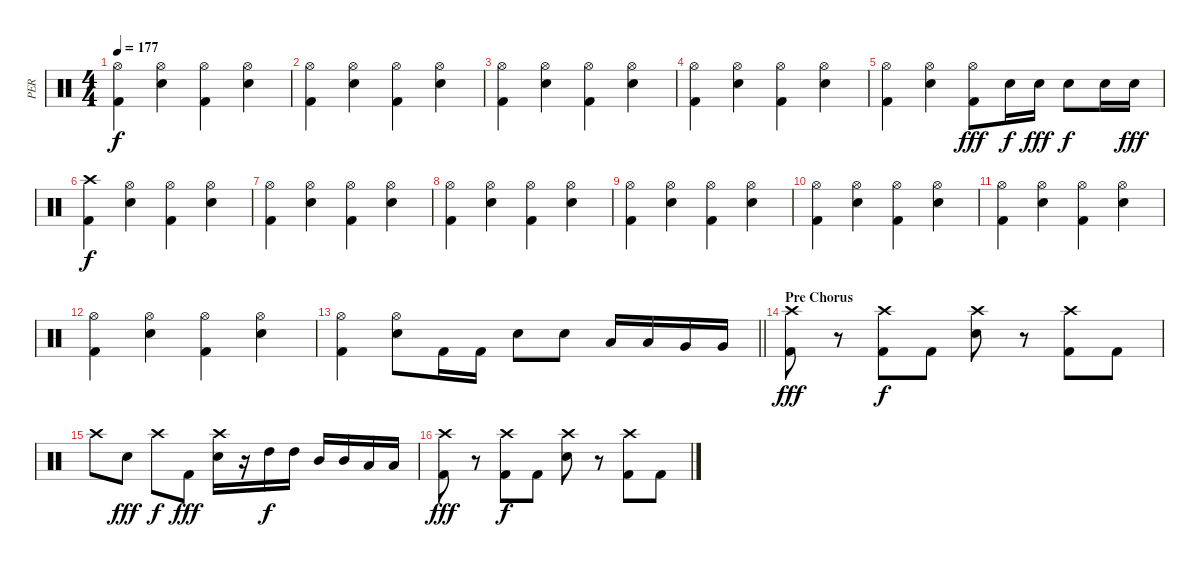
\track ("PER" "PER") {instrument percussion}
\staff {score}
\articulation defaults
\ts (4 4)
\tempo 177
\clef neutral
\ks c
("Hi-Hat (open)" "Kick (hit) 2").4{dy f} ("Hi-Hat (open)" "Electric Snare (hit)").4 ("Hi-Hat (open)" "Kick (hit) 2").4 ("Hi-Hat (open)" "Electric Snare (hit)").4 |
("Hi-Hat (open)" "Kick (hit) 2").4 ("Hi-Hat (open)" "Electric Snare (hit)").4 ("Hi-Hat (open)" "Kick (hit) 2").4 ("Hi-Hat (open)" "Electric Snare (hit)").4 |
("Hi-Hat (open)" "Kick (hit) 2").4 ("Hi-Hat (open)" "Electric Snare (hit)").4 ("Hi-Hat (open)" "Kick (hit) 2").4 ("Hi-Hat (open)" "Electric Snare (hit)").4 |
("Hi-Hat (open)" "Kick (hit) 2").4 ("Hi-Hat (open)" "Electric Snare (hit)").4 ("Hi-Hat (open)" "Kick (hit) 2").4 ("Hi-Hat (open)" "Electric Snare (hit)").4 |
("Hi-Hat (open)" "Kick (hit) 2").4 ("Hi-Hat (open)" "Electric Snare (hit)").4 ("Hi-Hat (open)" "Kick (hit) 2").8{dy fff} "Electric Snare (hit)".16{dy f} "Electric Snare (hit)".16{dy fff} "Electric Snare (hit)".8{dy f} "Electric Snare (hit)".16 "Electric Snare (hit)".16{dy fff} |
("Crash high (hit)" "Kick (hit) 2").4{dy f} ("Hi-Hat (open)" "Electric Snare (hit)").4 ("Hi-Hat (open)" "Kick (hit) 2").4 ("Hi-Hat (open)" "Electric Snare (hit)").4 |
("Hi-Hat (open)" "Kick (hit) 2").4 ("Hi-Hat (open)" "Electric Snare (hit)").4 ("Hi-Hat (open)" "Kick (hit) 2").4 ("Hi-Hat (open)" "Electric Snare (hit)").4 |
("Hi-Hat (open)" "Kick (hit) 2").4 ("Hi-Hat (open)" "Electric Snare (hit)").4 ("Hi-Hat (open)" "Kick (hit) 2").4 ("Hi-Hat (open)" "Electric Snare (hit)").4 |
("Hi-Hat (open)" "Kick (hit) 2").4 ("Hi-Hat (open)" "Electric Snare (hit)").4 ("Hi-Hat (open)" "Kick (hit) 2").4 ("Hi-Hat (open)" "Electric Snare (hit)").4 |
("Hi-Hat (open)" "Kick (hit) 2").4 ("Hi-Hat (open)" "Electric Snare (hit)").4 ("Hi-Hat (open)" "Kick (hit) 2").4 ("Hi-Hat (open)" "Electric Snare (hit)").4 |
("Hi-Hat (open)" "Kick (hit) 2").4 ("Hi-Hat (open)" "Electric Snare (hit)").4 ("Hi-Hat (open)" "Kick (hit) 2").4 ("Hi-Hat (open)" "Electric Snare (hit)").4 |
("Hi-Hat (open)" "Kick (hit) 2").4 ("Hi-Hat (open)" "Electric Snare (hit)").4 ("Hi-Hat (open)" "Kick (hit) 2").4 ("Hi-Hat (open)" "Electric Snare (hit)").4 |
\barLineRight lightlight
("Hi-Hat (open)" "Kick (hit) 2").4 ("Hi-Hat (open)" "Electric Snare (hit)").8 "Kick (hit) 2".16 "Kick (hit) 2".16 "Electric Snare (hit)".8 "Electric Snare (hit)".8 "Low Tom (hit)".16 "Low Tom (hit)".16 "Very Low Tom (hit)".16 "Very Low Tom (hit)".16 |
\section ("" "Pre Chorus")
("Crash high (hit)" "Kick (hit) 2").8{dy fff} r.8 ("Crash high (hit)" "Kick (hit) 2").8{dy f} "Kick (hit) 2".8 ("Crash high (hit)" "Electric Snare (hit)").8 r.8 ("Crash high (hit)" "Kick (hit) 2").8 "Kick (hit) 2".8 |
"Crash high (hit)".8 "Electric Snare (hit)".8{dy fff} "Crash high (hit)".8{dy f} "Kick (hit) 2".8{dy fff} ("Crash high (hit)" "Electric Snare (hit)").16 r.16 "High Tom (hit)".16{dy f} "High Tom (hit)".16 "Mid Tom (hit)".16 "Mid Tom (hit)".16 "Low Tom (hit)".16 "Low Tom (hit)".16 |
("Crash high (hit)" "Kick (hit) 2").8{dy fff} r.8 ("Crash high (hit)" "Kick (hit) 2").8{dy f} "Kick (hit) 2".8 ("Crash high (hit)" "Electric Snare (hit)").8 r.8 ("Crash high (hit)" "Kick (hit) 2").8 "Kick (hit) 2".8
